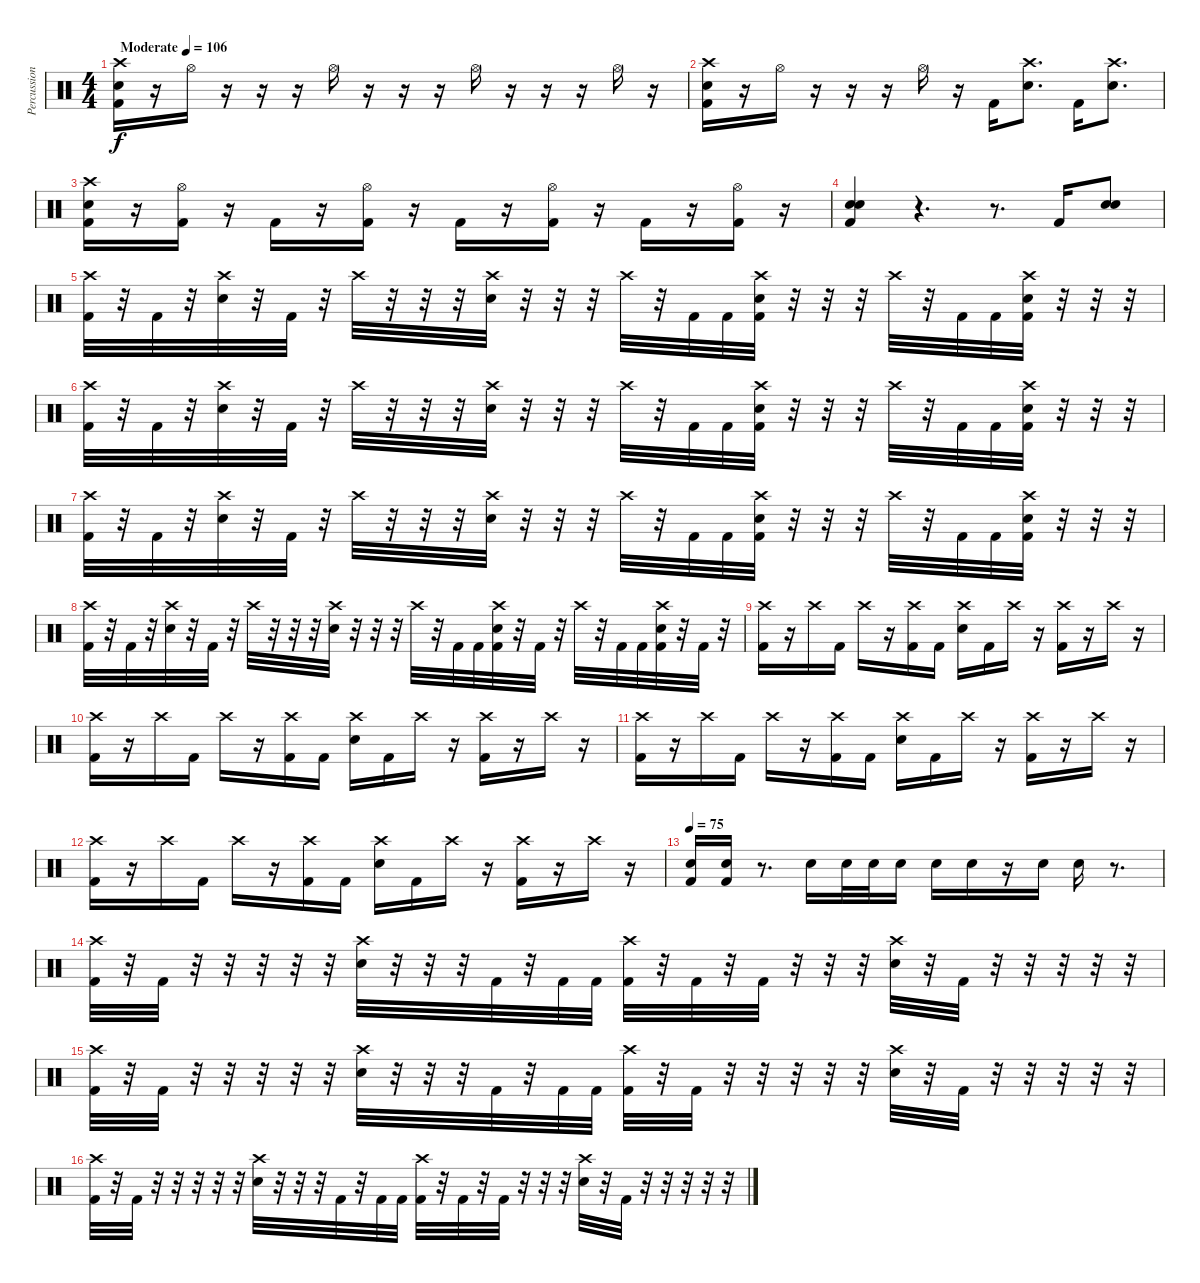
\track ("Percussion" "Percussion") {instrument percussion}
\staff {score}
\articulation defaults
\ts (4 4)
\tempo (106 "Moderate")
\clef neutral
\ks c
("Crash high (hit)" "Electric Snare (hit)" "Kick (hit) 2").16{dy f} r.16 "Hi-Hat (open)".16 r.16 r.16 r.16 "Hi-Hat (open)".16 r.16 r.16 r.16 "Hi-Hat (open)".16 r.16 r.16 r.16 "Hi-Hat (open)".16 r.16 |
("Crash high (hit)" "Electric Snare (hit)" "Kick (hit) 2").16 r.16 "Hi-Hat (open)".16 r.16 r.16 r.16 "Hi-Hat (open)".16 r.16 "Kick (hit) 2".16 ("Crash high (hit)" "Electric Snare (hit)").8{d} "Kick (hit) 2".16 ("Crash high (hit)" "Electric Snare (hit)").8{d} |
("Crash high (hit)" "Electric Snare (hit)" "Kick (hit) 2").16 r.16 ("Hi-Hat (open)" "Kick (hit) 2").16 r.16 "Kick (hit) 2".16 r.16 ("Hi-Hat (open)" "Kick (hit) 2").16 r.16 "Kick (hit) 2".16 r.16 ("Hi-Hat (open)" "Kick (hit) 2").16 r.16 "Kick (hit) 2".16 r.16 ("Hi-Hat (open)" "Kick (hit) 2").16 r.16 |
("Electric Snare (hit)" "Electric Snare (hit)" "Kick (hit) 2").4 r.4{d} r.8{d} "Kick (hit) 2".16 ("Electric Snare (hit)" "Electric Snare (hit)").8 |
("Crash high (hit)" "Kick (hit) 2").32 r.32 "Kick (hit) 2".32 r.32 ("Crash high (hit)" "Electric Snare (hit)").32 r.32 "Kick (hit) 2".32 r.32 "Crash high (hit)".32 r.32 r.32 r.32 ("Crash high (hit)" "Electric Snare (hit)").32 r.32 r.32 r.32 "Crash high (hit)".32 r.32 "Kick (hit) 2".32 "Kick (hit) 2".32 ("Crash high (hit)" "Electric Snare (hit)" "Kick (hit) 2").32 r.32 r.32 r.32 "Crash high (hit)".32 r.32 "Kick (hit) 2".32 "Kick (hit) 2".32 ("Crash high (hit)" "Electric Snare (hit)" "Kick (hit) 2").32 r.32 r.32 r.32 |
("Crash high (hit)" "Kick (hit) 2").32 r.32 "Kick (hit) 2".32 r.32 ("Crash high (hit)" "Electric Snare (hit)").32 r.32 "Kick (hit) 2".32 r.32 "Crash high (hit)".32 r.32 r.32 r.32 ("Crash high (hit)" "Electric Snare (hit)").32 r.32 r.32 r.32 "Crash high (hit)".32 r.32 "Kick (hit) 2".32 "Kick (hit) 2".32 ("Crash high (hit)" "Electric Snare (hit)" "Kick (hit) 2").32 r.32 r.32 r.32 "Crash high (hit)".32 r.32 "Kick (hit) 2".32 "Kick (hit) 2".32 ("Crash high (hit)" "Electric Snare (hit)" "Kick (hit) 2").32 r.32 r.32 r.32 |
("Crash high (hit)" "Kick (hit) 2").32 r.32 "Kick (hit) 2".32 r.32 ("Crash high (hit)" "Electric Snare (hit)").32 r.32 "Kick (hit) 2".32 r.32 "Crash high (hit)".32 r.32 r.32 r.32 ("Crash high (hit)" "Electric Snare (hit)").32 r.32 r.32 r.32 "Crash high (hit)".32 r.32 "Kick (hit) 2".32 "Kick (hit) 2".32 ("Crash high (hit)" "Electric Snare (hit)" "Kick (hit) 2").32 r.32 r.32 r.32 "Crash high (hit)".32 r.32 "Kick (hit) 2".32 "Kick (hit) 2".32 ("Crash high (hit)" "Electric Snare (hit)" "Kick (hit) 2").32 r.32 r.32 r.32 |
("Crash high (hit)" "Kick (hit) 2").32 r.32 "Kick (hit) 2".32 r.32 ("Crash high (hit)" "Electric Snare (hit)").32 r.32 "Kick (hit) 2".32 r.32 "Crash high (hit)".32 r.32 r.32 r.32 ("Crash high (hit)" "Electric Snare (hit)").32 r.32 r.32 r.32 "Crash high (hit)".32 r.32 "Kick (hit) 2".32 "Kick (hit) 2".32 ("Crash high (hit)" "Electric Snare (hit)" "Kick (hit) 2").32 r.32 "Kick (hit) 2".32 r.32 "Crash high (hit)".32 r.32 "Kick (hit) 2".32 "Kick (hit) 2".32 ("Crash high (hit)" "Electric Snare (hit)" "Kick (hit) 2").32 r.32 "Kick (hit) 2".32 r.32 |
("Crash high (hit)" "Kick (hit) 2").16 r.16 "Crash high (hit)".16 "Kick (hit) 2".16 "Crash high (hit)".16 r.16 ("Crash high (hit)" "Kick (hit) 2").16 "Kick (hit) 2".16 ("Crash high (hit)" "Electric Snare (hit)").16 "Kick (hit) 2".16 "Crash high (hit)".16 r.16 ("Crash high (hit)" "Kick (hit) 2").16 r.16 "Crash high (hit)".16 r.16 |
("Crash high (hit)" "Kick (hit) 2").16 r.16 "Crash high (hit)".16 "Kick (hit) 2".16 "Crash high (hit)".16 r.16 ("Crash high (hit)" "Kick (hit) 2").16 "Kick (hit) 2".16 ("Crash high (hit)" "Electric Snare (hit)").16 "Kick (hit) 2".16 "Crash high (hit)".16 r.16 ("Crash high (hit)" "Kick (hit) 2").16 r.16 "Crash high (hit)".16 r.16 |
("Crash high (hit)" "Kick (hit) 2").16 r.16 "Crash high (hit)".16 "Kick (hit) 2".16 "Crash high (hit)".16 r.16 ("Crash high (hit)" "Kick (hit) 2").16 "Kick (hit) 2".16 ("Crash high (hit)" "Electric Snare (hit)").16 "Kick (hit) 2".16 "Crash high (hit)".16 r.16 ("Crash high (hit)" "Kick (hit) 2").16 r.16 "Crash high (hit)".16 r.16 |
("Crash high (hit)" "Kick (hit) 2").16 r.16 "Crash high (hit)".16 "Kick (hit) 2".16 "Crash high (hit)".16 r.16 ("Crash high (hit)" "Kick (hit) 2").16 "Kick (hit) 2".16 ("Crash high (hit)" "Electric Snare (hit)").16 "Kick (hit) 2".16 "Crash high (hit)".16 r.16 ("Crash high (hit)" "Kick (hit) 2").16 r.16 "Crash high (hit)".16 r.16 |
\tempo 75
("Electric Snare (hit)" "Kick (hit) 2").16 ("Electric Snare (hit)" "Kick (hit) 2").16 r.8{d} "Electric Snare (hit)".16 "Electric Snare (hit)".32 "Electric Snare (hit)".32 "Electric Snare (hit)".16 "Electric Snare (hit)".16 "Electric Snare (hit)".16 r.16 "Electric Snare (hit)".16 "Electric Snare (hit)".16 r.8{d} |
("Crash high (hit)" "Kick (hit) 2").32 r.32 "Kick (hit) 2".32 r.32 r.32 r.32 r.32 r.32 ("Crash high (hit)" "Electric Snare (hit)").32 r.32 r.32 r.32 "Kick (hit) 2".32 r.32 "Kick (hit) 2".32 "Kick (hit) 2".32 ("Crash high (hit)" "Kick (hit) 2").32 r.32 "Kick (hit) 2".32 r.32 "Kick (hit) 2".32 r.32 r.32 r.32 ("Crash high (hit)" "Electric Snare (hit)").32 r.32 "Kick (hit) 2".32 r.32 r.32 r.32 r.32 r.32 |
("Crash high (hit)" "Kick (hit) 2").32 r.32 "Kick (hit) 2".32 r.32 r.32 r.32 r.32 r.32 ("Crash high (hit)" "Electric Snare (hit)").32 r.32 r.32 r.32 "Kick (hit) 2".32 r.32 "Kick (hit) 2".32 "Kick (hit) 2".32 ("Crash high (hit)" "Kick (hit) 2").32 r.32 "Kick (hit) 2".32 r.32 r.32 r.32 r.32 r.32 ("Crash high (hit)" "Electric Snare (hit)").32 r.32 "Kick (hit) 2".32 r.32 r.32 r.32 r.32 r.32 |
("Crash high (hit)" "Kick (hit) 2").32 r.32 "Kick (hit) 2".32 r.32 r.32 r.32 r.32 r.32 ("Crash high (hit)" "Electric Snare (hit)").32 r.32 r.32 r.32 "Kick (hit) 2".32 r.32 "Kick (hit) 2".32 "Kick (hit) 2".32 ("Crash high (hit)" "Kick (hit) 2").32 r.32 "Kick (hit) 2".32 r.32 "Kick (hit) 2".32 r.32 r.32 r.32 ("Crash high (hit)" "Electric Snare (hit)").32 r.32 "Kick (hit) 2".32 r.32 r.32 r.32 r.32 r.32
